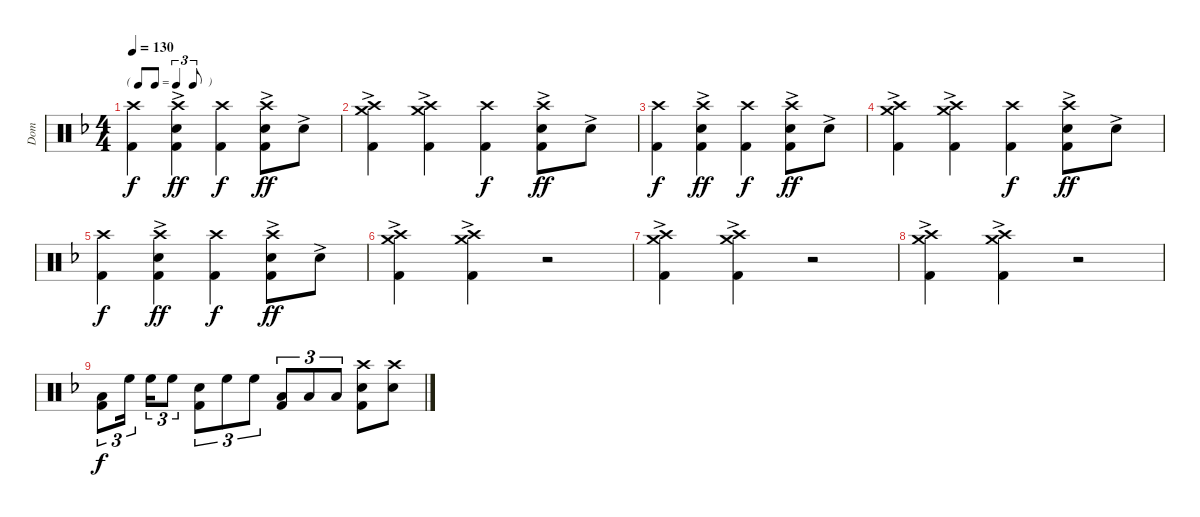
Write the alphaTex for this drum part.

\track ("Dom" "Dom") {instrument percussion}
\staff {score}
\articulation defaults
\ts (4 4)
\tf triplet8th
\tempo 130
\clef neutral
\ks dminor
("Crash high (hit)" "Kick (hit) 2").4{dy f} ("Crash high (hit)" "Electric Snare (hit)"{ac} "Kick (hit) 2").4{dy ff} ("Crash high (hit)" "Kick (hit) 2").4{dy f} ("Crash high (hit)" "Electric Snare (hit)"{ac} "Kick (hit) 2").8{dy ff} "Electric Snare (hit)"{ac}.8 |
("Crash high (hit)"{ac} "Crash medium (hit)"{ac} "Kick (hit) 2").4 ("Crash high (hit)"{ac} "Crash medium (hit)"{ac} "Kick (hit) 2").4 ("Crash high (hit)" "Kick (hit) 2").4{dy f} ("Crash high (hit)" "Electric Snare (hit)"{ac} "Kick (hit) 2").8{dy ff} "Electric Snare (hit)"{ac}.8 |
("Crash high (hit)" "Kick (hit) 2").4{dy f} ("Crash high (hit)" "Electric Snare (hit)"{ac} "Kick (hit) 2").4{dy ff} ("Crash high (hit)" "Kick (hit) 2").4{dy f} ("Crash high (hit)" "Electric Snare (hit)"{ac} "Kick (hit) 2").8{dy ff} "Electric Snare (hit)"{ac}.8 |
("Crash high (hit)"{ac} "Crash medium (hit)"{ac} "Kick (hit) 2").4 ("Crash high (hit)"{ac} "Crash medium (hit)"{ac} "Kick (hit) 2").4 ("Crash high (hit)" "Kick (hit) 2").4{dy f} ("Crash high (hit)" "Electric Snare (hit)"{ac} "Kick (hit) 2").8{dy ff} "Electric Snare (hit)"{ac}.8 |
("Crash high (hit)" "Kick (hit) 2").4{dy f} ("Crash high (hit)" "Electric Snare (hit)"{ac} "Kick (hit) 2").4{dy ff} ("Crash high (hit)" "Kick (hit) 2").4{dy f} ("Crash high (hit)" "Electric Snare (hit)"{ac} "Kick (hit) 2").8{dy ff} "Electric Snare (hit)"{ac}.8 |
("Crash high (hit)"{ac} "Crash medium (hit)"{ac} "Kick (hit) 2").4 ("Crash high (hit)"{ac} "Crash medium (hit)"{ac} "Kick (hit) 2").4 r.2 |
("Crash high (hit)"{ac} "Crash medium (hit)"{ac} "Kick (hit) 2").4 ("Crash high (hit)"{ac} "Crash medium (hit)"{ac} "Kick (hit) 2").4 r.2 |
("Crash high (hit)"{ac} "Crash medium (hit)"{ac} "Kick (hit) 2").4 ("Crash high (hit)"{ac} "Crash medium (hit)"{ac} "Kick (hit) 2").4 r.2 |
("Low Tom (hit)" "Kick (hit) 2").8{tu (3 2) dy f} "High Floor Tom (hit)".16{tu (3 2) beam splitsecondary} "High Floor Tom (hit)".16{tu (3 2)} "High Floor Tom (hit)".8{tu (3 2)} ("Electric Snare (hit)" "Kick (hit) 2").8{tu (3 2)} "High Floor Tom (hit)".8{tu (3 2)} "High Floor Tom (hit)".8{tu (3 2)} ("Low Tom (hit)" "Kick (hit) 2").8{tu (3 2)} "Low Tom (hit)".8{tu (3 2)} "Low Tom (hit)".8{tu (3 2)} ("Crash high (hit)" "Electric Snare (hit)" "Kick (hit) 2").8 ("Crash high (hit)" "Electric Snare (hit)").8
